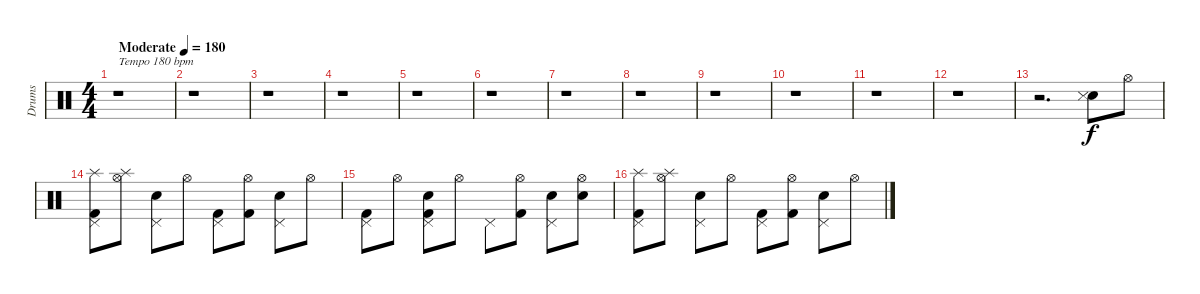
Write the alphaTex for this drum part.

\track ("Drums" "Drums") {instrument percussion}
\staff {score}
\articulation defaults
\ts (4 4)
\tempo (180 "Moderate")
\clef neutral
\ks c
r.1{txt "Tempo 180 bpm" dy f} |
r.1 |
r.1 |
r.1 |
r.1 |
r.1 |
r.1 |
r.1 |
r.1 |
r.1 |
r.1 |
r.1 |
r.2{d} ("Snare (hit) 2" "Snare (side stick) 3").8 "Hi-Hat (open)".8 |
("Pedal Hi-Hat (hit)" "Splash (hit)" "Kick (hit) 2").8 ("Hi-Hat (open)" "Splash (hit)").8 ("Pedal Hi-Hat (hit)" "Snare (hit) 2").8 "Hi-Hat (open)".8 ("Pedal Hi-Hat (hit)" "Kick (hit) 2").8 ("Hi-Hat (open)" "Kick (hit) 2").8 ("Pedal Hi-Hat (hit)" "Snare (hit) 2").8 "Hi-Hat (open)".8 |
("Pedal Hi-Hat (hit)" "Kick (hit) 2").8 "Hi-Hat (open)".8 ("Pedal Hi-Hat (hit)" "Snare (hit) 2" "Kick (hit) 2").8 "Hi-Hat (open)".8 "Pedal Hi-Hat (hit)".8 ("Hi-Hat (open)" "Kick (hit) 2").8 ("Pedal Hi-Hat (hit)" "Snare (hit) 2").8 ("Hi-Hat (open)" "Snare (hit) 2").8 |
("Pedal Hi-Hat (hit)" "Splash (hit)" "Kick (hit) 2").8 ("Hi-Hat (open)" "Splash (hit)").8 ("Pedal Hi-Hat (hit)" "Snare (hit) 2").8 "Hi-Hat (open)".8 ("Pedal Hi-Hat (hit)" "Kick (hit) 2").8 ("Hi-Hat (open)" "Kick (hit) 2").8 ("Pedal Hi-Hat (hit)" "Snare (hit) 2").8 "Hi-Hat (open)".8
